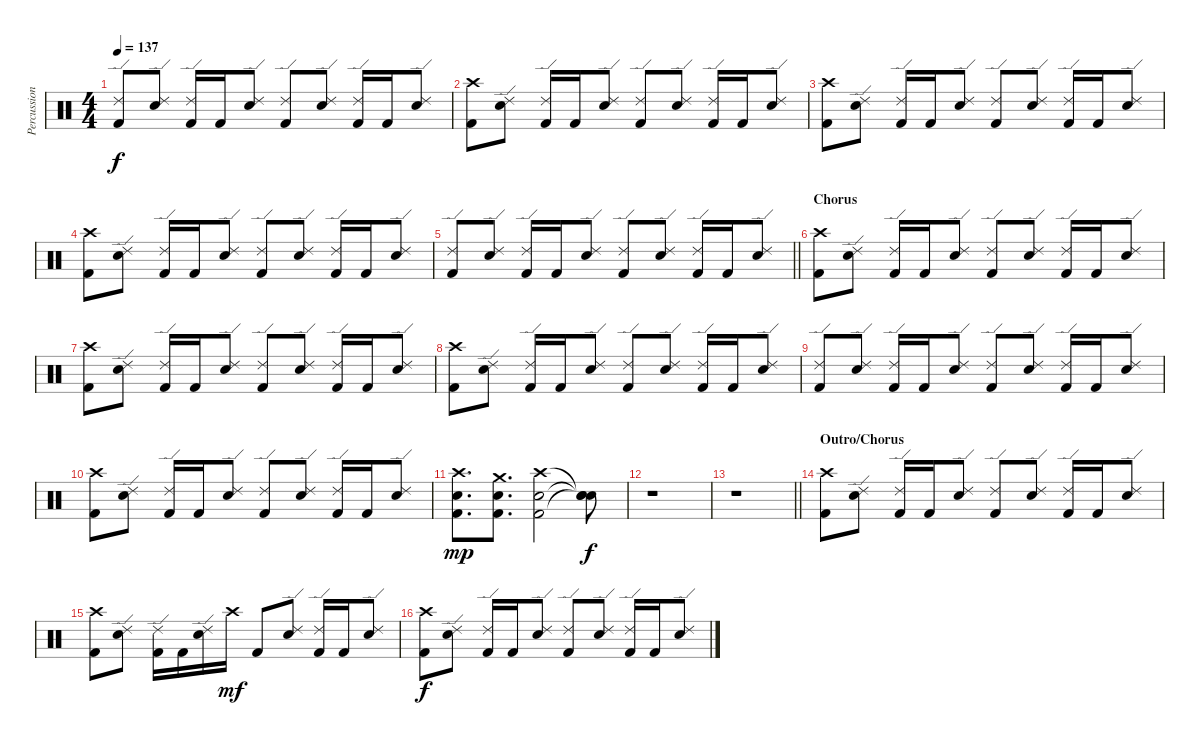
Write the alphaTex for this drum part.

\track ("Percussion" "Percussion") {instrument percussion}
\staff {score}
\articulation defaults
\ts (4 4)
\tempo 137
\clef neutral
\ks c
("Ride (edge) 2" "Kick (hit) 2").8{dy f} ("Ride (edge) 2" "Electric Snare (hit)").8 ("Ride (edge) 2" "Kick (hit) 2").16 "Kick (hit) 2".16 ("Ride (edge) 2" "Electric Snare (hit)").8 ("Ride (edge) 2" "Kick (hit) 2").8 ("Ride (edge) 2" "Electric Snare (hit)").8 ("Ride (edge) 2" "Kick (hit) 2").16 "Kick (hit) 2".16 ("Ride (edge) 2" "Electric Snare (hit)").8 |
("Crash high (hit)" "Kick (hit) 2").8 ("Ride (edge) 2" "Electric Snare (hit)").8 ("Ride (edge) 2" "Kick (hit) 2").16 "Kick (hit) 2".16 ("Ride (edge) 2" "Electric Snare (hit)").8 ("Ride (edge) 2" "Kick (hit) 2").8 ("Ride (edge) 2" "Electric Snare (hit)").8 ("Ride (edge) 2" "Kick (hit) 2").16 "Kick (hit) 2".16 ("Ride (edge) 2" "Electric Snare (hit)").8 |
("Crash high (hit)" "Kick (hit) 2").8 ("Ride (edge) 2" "Electric Snare (hit)").8 ("Ride (edge) 2" "Kick (hit) 2").16 "Kick (hit) 2".16 ("Ride (edge) 2" "Electric Snare (hit)").8 ("Ride (edge) 2" "Kick (hit) 2").8 ("Ride (edge) 2" "Electric Snare (hit)").8 ("Ride (edge) 2" "Kick (hit) 2").16 "Kick (hit) 2".16 ("Ride (edge) 2" "Electric Snare (hit)").8 |
("Crash high (hit)" "Kick (hit) 2").8 ("Ride (edge) 2" "Electric Snare (hit)").8 ("Ride (edge) 2" "Kick (hit) 2").16 "Kick (hit) 2".16 ("Ride (edge) 2" "Electric Snare (hit)").8 ("Ride (edge) 2" "Kick (hit) 2").8 ("Ride (edge) 2" "Electric Snare (hit)").8 ("Ride (edge) 2" "Kick (hit) 2").16 "Kick (hit) 2".16 ("Ride (edge) 2" "Electric Snare (hit)").8 |
\barLineRight lightlight
("Ride (edge) 2" "Kick (hit) 2").8 ("Ride (edge) 2" "Electric Snare (hit)").8 ("Ride (edge) 2" "Kick (hit) 2").16 "Kick (hit) 2".16 ("Ride (edge) 2" "Electric Snare (hit)").8 ("Ride (edge) 2" "Kick (hit) 2").8 ("Ride (edge) 2" "Electric Snare (hit)").8 ("Ride (edge) 2" "Kick (hit) 2").16 "Kick (hit) 2".16 ("Ride (edge) 2" "Electric Snare (hit)").8 |
\section ("" "Chorus")
("Crash high (hit)" "Kick (hit) 2").8 ("Ride (edge) 2" "Electric Snare (hit)").8 ("Ride (edge) 2" "Kick (hit) 2").16 "Kick (hit) 2".16 ("Ride (edge) 2" "Electric Snare (hit)").8 ("Ride (edge) 2" "Kick (hit) 2").8 ("Ride (edge) 2" "Electric Snare (hit)").8 ("Ride (edge) 2" "Kick (hit) 2").16 "Kick (hit) 2".16 ("Ride (edge) 2" "Electric Snare (hit)").8 |
("Crash high (hit)" "Kick (hit) 2").8 ("Ride (edge) 2" "Electric Snare (hit)").8 ("Ride (edge) 2" "Kick (hit) 2").16 "Kick (hit) 2".16 ("Ride (edge) 2" "Electric Snare (hit)").8 ("Ride (edge) 2" "Kick (hit) 2").8 ("Ride (edge) 2" "Electric Snare (hit)").8 ("Ride (edge) 2" "Kick (hit) 2").16 "Kick (hit) 2".16 ("Ride (edge) 2" "Electric Snare (hit)").8 |
("Crash high (hit)" "Kick (hit) 2").8 ("Ride (edge) 2" "Electric Snare (hit)").8 ("Ride (edge) 2" "Kick (hit) 2").16 "Kick (hit) 2".16 ("Ride (edge) 2" "Electric Snare (hit)").8 ("Ride (edge) 2" "Kick (hit) 2").8 ("Ride (edge) 2" "Electric Snare (hit)").8 ("Ride (edge) 2" "Kick (hit) 2").16 "Kick (hit) 2".16 ("Ride (edge) 2" "Electric Snare (hit)").8 |
("Ride (edge) 2" "Kick (hit) 2").8 ("Ride (edge) 2" "Electric Snare (hit)").8 ("Ride (edge) 2" "Kick (hit) 2").16 "Kick (hit) 2".16 ("Ride (edge) 2" "Electric Snare (hit)").8 ("Ride (edge) 2" "Kick (hit) 2").8 ("Ride (edge) 2" "Electric Snare (hit)").8 ("Ride (edge) 2" "Kick (hit) 2").16 "Kick (hit) 2".16 ("Ride (edge) 2" "Electric Snare (hit)").8 |
("Crash high (hit)" "Kick (hit) 2").8 ("Ride (edge) 2" "Electric Snare (hit)").8 ("Ride (edge) 2" "Kick (hit) 2").16 "Kick (hit) 2".16 ("Ride (edge) 2" "Electric Snare (hit)").8 ("Ride (edge) 2" "Kick (hit) 2").8 ("Ride (edge) 2" "Electric Snare (hit)").8 ("Ride (edge) 2" "Kick (hit) 2").16 "Kick (hit) 2".16 ("Ride (edge) 2" "Electric Snare (hit)").8 |
("Crash high (hit)" "Electric Snare (hit)" "Kick (hit) 2").8{d dy mp} ("Crash medium (hit)" "Electric Snare (hit)" "Kick (hit) 2").8{d} ("Crash high (hit)" "Electric Snare (hit)" "Kick (hit) 2").2 ("Snare (hit)"{t} "Snare (hit)"{t} "Snare (hit)"{t}).8{dy f} |
r.1 |
\barLineRight lightlight
r.1 |
\section ("" "Outro/Chorus")
("Crash high (hit)" "Kick (hit) 2").8 ("Ride (edge) 2" "Electric Snare (hit)").8 ("Ride (edge) 2" "Kick (hit) 2").16 "Kick (hit) 2".16 ("Ride (edge) 2" "Electric Snare (hit)").8 ("Ride (edge) 2" "Kick (hit) 2").8 ("Ride (edge) 2" "Electric Snare (hit)").8 ("Ride (edge) 2" "Kick (hit) 2").16 "Kick (hit) 2".16 ("Ride (edge) 2" "Electric Snare (hit)").8 |
("Crash high (hit)" "Kick (hit) 2").8 ("Ride (edge) 2" "Electric Snare (hit)").8 ("Ride (edge) 2" "Kick (hit) 2").16 "Kick (hit) 2".16 ("Ride (edge) 2" "Electric Snare (hit)").16 "Crash high (hit)".16{dy mf} "Kick (hit) 2".8 ("Ride (edge) 2" "Electric Snare (hit)").8 ("Ride (edge) 2" "Kick (hit) 2").16 "Kick (hit) 2".16 ("Ride (edge) 2" "Electric Snare (hit)").8 |
("Crash high (hit)" "Kick (hit) 2").8{dy f} ("Ride (edge) 2" "Electric Snare (hit)").8 ("Ride (edge) 2" "Kick (hit) 2").16 "Kick (hit) 2".16 ("Ride (edge) 2" "Electric Snare (hit)").8 ("Ride (edge) 2" "Kick (hit) 2").8 ("Ride (edge) 2" "Electric Snare (hit)").8 ("Ride (edge) 2" "Kick (hit) 2").16 "Kick (hit) 2".16 ("Ride (edge) 2" "Electric Snare (hit)").8
